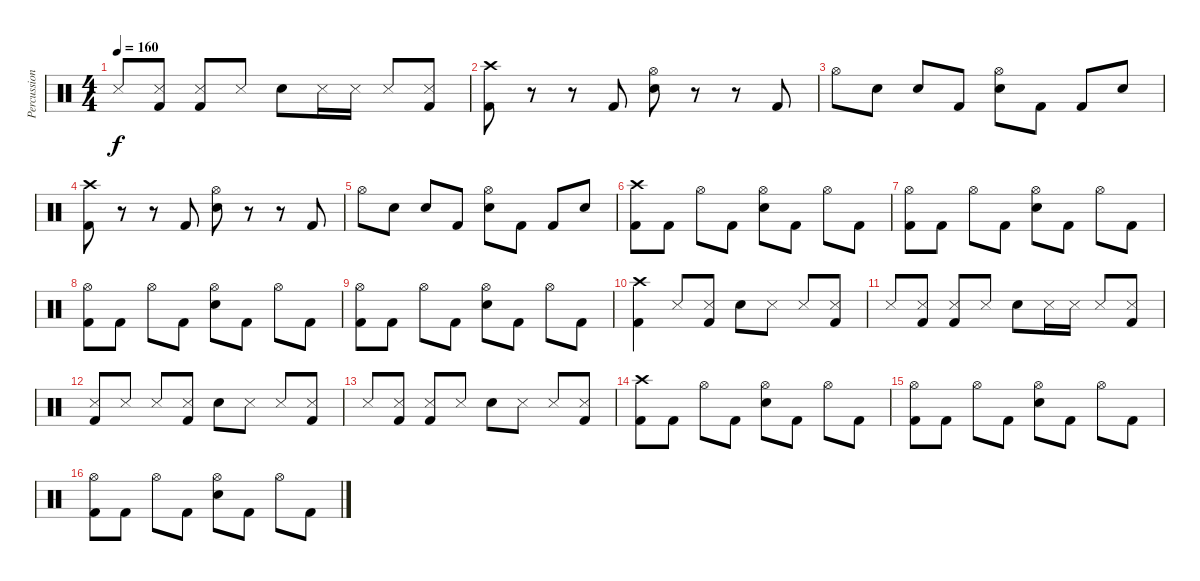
\track ("Percussion" "Percussion") {instrument percussion}
\staff {score}
\articulation defaults
\ts (4 4)
\tempo 160
\clef neutral
\ks c "Snare (side stick) 3".8{dy f}
("Snare (side stick) 3" "Kick (hit) 2").8 ("Snare (side stick) 3" "Kick (hit) 2").8 "Snare (side stick) 3".8 "Electric Snare (hit)".8 "Snare (side stick) 3".16 "Snare (side stick) 3".16 "Snare (side stick) 3".8 ("Snare (side stick) 3" "Kick (hit) 2").8 |
("Crash high (hit)" "Kick (hit) 2").8 r.8 r.8 "Kick (hit) 2".8 ("Hi-Hat (open)" "Electric Snare (hit)").8 r.8 r.8 "Kick (hit) 2".8 |
"Hi-Hat (open)".8 "Electric Snare (hit)".8 "Electric Snare (hit)".8 "Kick (hit) 2".8 ("Hi-Hat (open)" "Electric Snare (hit)").8 "Kick (hit) 2".8 "Kick (hit) 2".8 "Electric Snare (hit)".8 |
("Crash high (hit)" "Kick (hit) 2").8 r.8 r.8 "Kick (hit) 2".8 ("Hi-Hat (open)" "Electric Snare (hit)").8 r.8 r.8 "Kick (hit) 2".8 |
"Hi-Hat (open)".8 "Electric Snare (hit)".8 "Electric Snare (hit)".8 "Kick (hit) 2".8 ("Hi-Hat (open)" "Electric Snare (hit)").8 "Kick (hit) 2".8 "Kick (hit) 2".8 "Electric Snare (hit)".8 |
("Crash high (hit)" "Kick (hit) 2").8 "Kick (hit) 2".8 "Hi-Hat (open)".8 "Kick (hit) 2".8 ("Hi-Hat (open)" "Electric Snare (hit)").8 "Kick (hit) 2".8 "Hi-Hat (open)".8 "Kick (hit) 2".8 |
("Hi-Hat (open)" "Kick (hit) 2").8 "Kick (hit) 2".8 "Hi-Hat (open)".8 "Kick (hit) 2".8 ("Hi-Hat (open)" "Electric Snare (hit)").8 "Kick (hit) 2".8 "Hi-Hat (open)".8 "Kick (hit) 2".8 |
("Hi-Hat (open)" "Kick (hit) 2").8 "Kick (hit) 2".8 "Hi-Hat (open)".8 "Kick (hit) 2".8 ("Hi-Hat (open)" "Electric Snare (hit)").8 "Kick (hit) 2".8 "Hi-Hat (open)".8 "Kick (hit) 2".8 |
("Hi-Hat (open)" "Kick (hit) 2").8 "Kick (hit) 2".8 "Hi-Hat (open)".8 "Kick (hit) 2".8 ("Hi-Hat (open)" "Electric Snare (hit)").8 "Kick (hit) 2".8 "Hi-Hat (open)".8 "Kick (hit) 2".8 |
("Crash high (hit)" "Kick (hit) 2").4 "Snare (side stick) 3".8 ("Snare (side stick) 3" "Kick (hit) 2").8 "Electric Snare (hit)".8 "Snare (side stick) 3".8 "Snare (side stick) 3".8 ("Snare (side stick) 3" "Kick (hit) 2").8 |
"Snare (side stick) 3".8 ("Snare (side stick) 3" "Kick (hit) 2").8 ("Snare (side stick) 3" "Kick (hit) 2").8 "Snare (side stick) 3".8 "Electric Snare (hit)".8 "Snare (side stick) 3".16 "Snare (side stick) 3".16 "Snare (side stick) 3".8 ("Snare (side stick) 3" "Kick (hit) 2").8 |
("Snare (side stick) 3" "Kick (hit) 2").8 "Snare (side stick) 3".8 "Snare (side stick) 3".8 ("Snare (side stick) 3" "Kick (hit) 2").8 "Electric Snare (hit)".8 "Snare (side stick) 3".8 "Snare (side stick) 3".8 ("Snare (side stick) 3" "Kick (hit) 2").8 |
"Snare (side stick) 3".8 ("Snare (side stick) 3" "Kick (hit) 2").8 ("Snare (side stick) 3" "Kick (hit) 2").8 "Snare (side stick) 3".8 "Electric Snare (hit)".8 "Snare (side stick) 3".8 "Snare (side stick) 3".8 ("Snare (side stick) 3" "Kick (hit) 2").8 |
("Crash high (hit)" "Kick (hit) 2").8 "Kick (hit) 2".8 "Hi-Hat (open)".8 "Kick (hit) 2".8 ("Hi-Hat (open)" "Electric Snare (hit)").8 "Kick (hit) 2".8 "Hi-Hat (open)".8 "Kick (hit) 2".8 |
("Hi-Hat (open)" "Kick (hit) 2").8 "Kick (hit) 2".8 "Hi-Hat (open)".8 "Kick (hit) 2".8 ("Hi-Hat (open)" "Electric Snare (hit)").8 "Kick (hit) 2".8 "Hi-Hat (open)".8 "Kick (hit) 2".8 |
("Hi-Hat (open)" "Kick (hit) 2").8 "Kick (hit) 2".8 "Hi-Hat (open)".8 "Kick (hit) 2".8 ("Hi-Hat (open)" "Electric Snare (hit)").8 "Kick (hit) 2".8 "Hi-Hat (open)".8 "Kick (hit) 2".8
